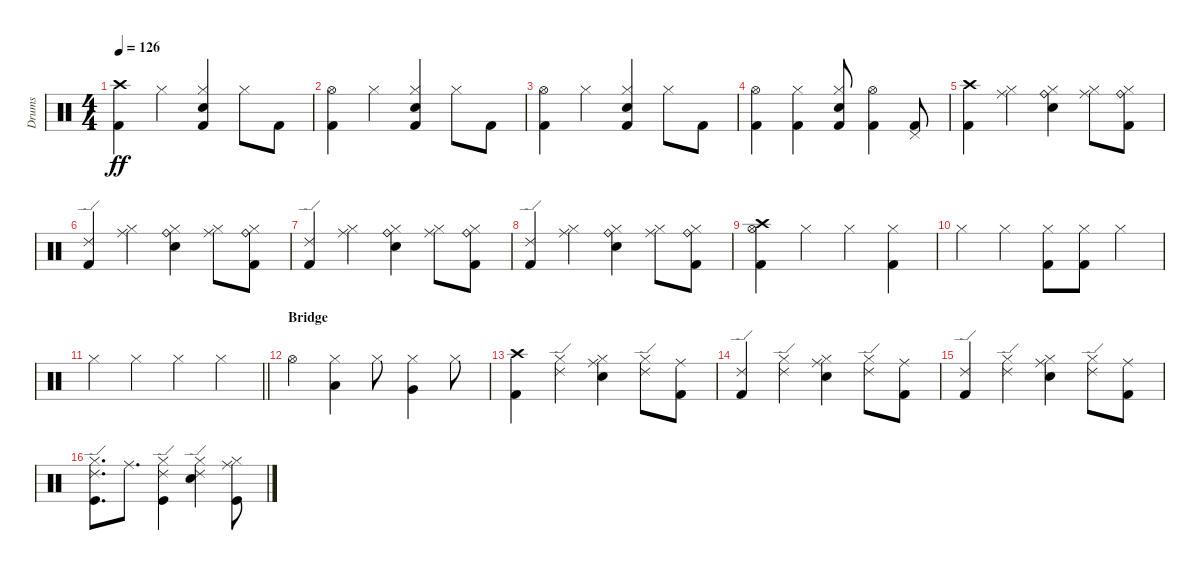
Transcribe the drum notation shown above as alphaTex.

\track ("Drums" "Drums") {instrument percussion}
\staff {score}
\articulation defaults
\ts (4 4)
\tempo 126
\clef neutral
\ks c
("Crash high (hit)" "Kick (hit) 2").4{dy ff} "Hi-Hat (closed)".4 ("Hi-Hat (closed)" "Snare (hit) 2" "Kick (hit) 2").4 "Hi-Hat (closed)".8 "Kick (hit) 2".8 |
("Hi-Hat (open)" "Kick (hit) 2").4 "Hi-Hat (closed)".4 ("Hi-Hat (closed)" "Snare (hit) 2" "Kick (hit) 2").4 "Hi-Hat (closed)".8 "Kick (hit) 2".8 |
("Hi-Hat (open)" "Kick (hit) 2").4 "Hi-Hat (closed)".4 ("Hi-Hat (closed)" "Snare (hit) 2" "Kick (hit) 2").4 "Hi-Hat (closed)".8 "Kick (hit) 2".8 |
("Hi-Hat (open)" "Kick (hit) 2").4 ("Hi-Hat (closed)" "Kick (hit) 2").4 ("Hi-Hat (closed)" "Snare (hit) 2" "Kick (hit) 2").8 ("Hi-Hat (open)" "Kick (hit) 2").4 ("Pedal Hi-Hat (hit)" "Kick (hit) 2").8 |
("Crash high (hit)" "Kick (hit) 2").4 ("Ride (middle)" "Hi-Hat (closed)").4 ("Ride (bell)" "Hi-Hat (closed)" "Snare (hit) 2").4 ("Ride (middle)" "Hi-Hat (closed)").8 ("Ride (bell)" "Hi-Hat (closed)" "Kick (hit) 2").8 |
("Ride (edge) 2" "Kick (hit) 2").4 ("Ride (middle)" "Hi-Hat (closed)").4 ("Ride (bell)" "Hi-Hat (closed)" "Snare (hit) 2").4 ("Ride (middle)" "Hi-Hat (closed)").8 ("Ride (bell)" "Hi-Hat (closed)" "Kick (hit) 2").8 |
("Ride (edge) 2" "Kick (hit) 2").4 ("Ride (middle)" "Hi-Hat (closed)").4 ("Ride (bell)" "Hi-Hat (closed)" "Snare (hit) 2").4 ("Ride (middle)" "Hi-Hat (closed)").8 ("Ride (bell)" "Hi-Hat (closed)" "Kick (hit) 2").8 |
("Ride (edge) 2" "Kick (hit) 2").4 ("Ride (middle)" "Hi-Hat (closed)").4 ("Ride (bell)" "Hi-Hat (closed)" "Snare (hit) 2").4 ("Ride (middle)" "Hi-Hat (closed)").8 ("Ride (bell)" "Hi-Hat (closed)" "Kick (hit) 2").8 |
("Crash high (hit)" "Hi-Hat (open)" "Kick (hit) 2").4 "Hi-Hat (closed)".4 "Hi-Hat (closed)".4 ("Hi-Hat (closed)" "Kick (hit) 2").4 |
"Hi-Hat (closed)".4 "Hi-Hat (closed)".4 ("Hi-Hat (closed)" "Kick (hit) 2").8 ("Hi-Hat (closed)" "Kick (hit) 2").8 "Hi-Hat (closed)".4 |
\barLineRight lightlight "Hi-Hat (closed)".4 "Hi-Hat (closed)".4 "Hi-Hat (closed)".4 "Hi-Hat (closed)".4
|
\section ("" "Bridge")
"Hi-Hat (open)".4 ("Hi-Hat (closed)" "Low Tom (hit)").4 "Hi-Hat (closed)".8 ("Hi-Hat (closed)" "Very Low Tom (hit)").4 "Hi-Hat (closed)".8 |
("Crash high (hit)" "Kick (hit) 2").4 ("Ride (edge) 2" "Hi-Hat (closed)").4 ("Ride (middle)" "Hi-Hat (closed)" "Snare (hit) 2").4 ("Ride (edge) 2" "Hi-Hat (closed)").8 ("Ride (middle)" "Kick (hit) 2").8 |
("Ride (edge) 2" "Kick (hit) 2").4 ("Ride (edge) 2" "Hi-Hat (closed)").4 ("Ride (middle)" "Hi-Hat (closed)" "Snare (hit) 2").4 ("Ride (edge) 2" "Hi-Hat (closed)").8 ("Ride (middle)" "Kick (hit) 2").8 |
("Ride (edge) 2" "Kick (hit) 2").4 ("Ride (edge) 2" "Hi-Hat (closed)").4 ("Ride (middle)" "Hi-Hat (closed)" "Snare (hit) 2").4 ("Ride (edge) 2" "Hi-Hat (closed)").8 ("Ride (middle)" "Kick (hit) 2").8 |
("Kick (hit)" "Hi-Hat (closed)" "Ride (edge) 2").8{d} "Ride (middle)".8{d} ("Kick (hit)" "Hi-Hat (closed)" "Ride (edge) 2").4 ("Snare (hit) 2" "Hi-Hat (closed)" "Ride (edge) 2").4 ("Kick (hit)" "Hi-Hat (closed)" "Ride (middle)").8
